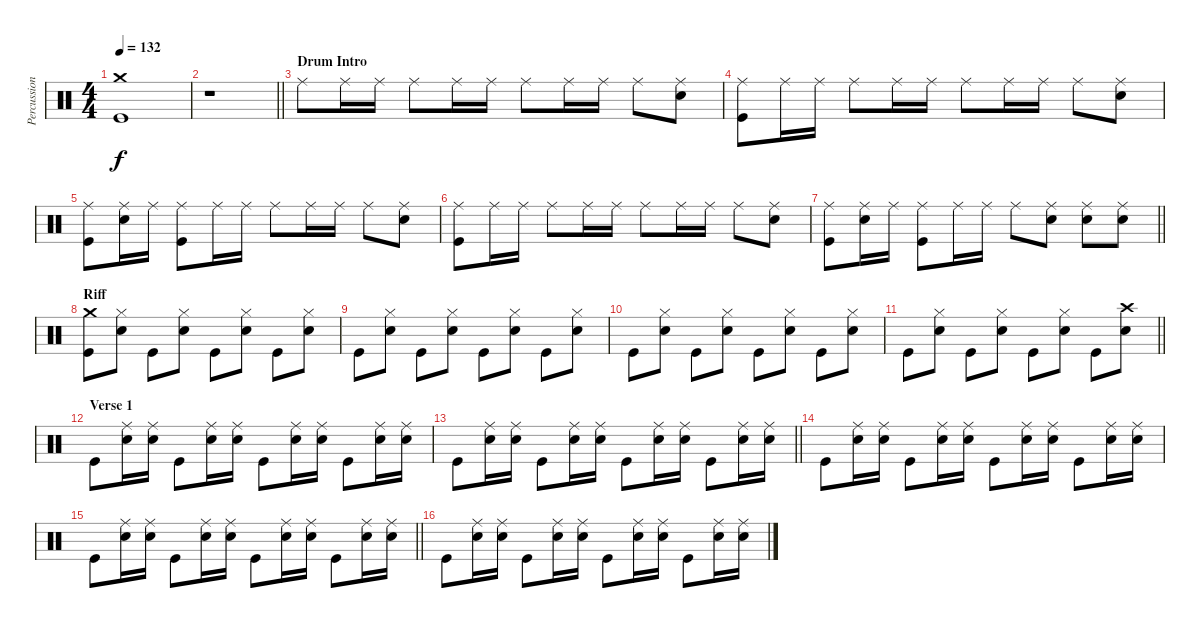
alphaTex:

\track ("Percussion" "Percussion") {instrument percussion}
\staff {score}
\articulation defaults
\ts (4 4)
\tempo 132
\clef neutral
\ks c
("Kick (hit)" "Crash medium (hit)").1{dy f} |
\barLineRight lightlight
r.1 |
\section ("" "Drum Intro")
"Ride (middle)".8 "Ride (middle)".16 "Ride (middle)".16 "Ride (middle)".8 "Ride (middle)".16 "Ride (middle)".16 "Ride (middle)".8 "Ride (middle)".16 "Ride (middle)".16 "Ride (middle)".8 ("Ride (middle)" "Snare (hit) 2").8 |
("Kick (hit)" "Ride (middle)").8 "Ride (middle)".16 "Ride (middle)".16 "Ride (middle)".8 "Ride (middle)".16 "Ride (middle)".16 "Ride (middle)".8 "Ride (middle)".16 "Ride (middle)".16 "Ride (middle)".8 ("Ride (middle)" "Snare (hit) 2").8 |
("Kick (hit)" "Ride (middle)").8 ("Ride (middle)" "Snare (hit) 2").16 "Ride (middle)".16 ("Kick (hit)" "Ride (middle)").8 "Ride (middle)".16 "Ride (middle)".16 "Ride (middle)".8 "Ride (middle)".16 "Ride (middle)".16 "Ride (middle)".8 ("Ride (middle)" "Snare (hit) 2").8 |
("Kick (hit)" "Ride (middle)").8 "Ride (middle)".16 "Ride (middle)".16 "Ride (middle)".8 "Ride (middle)".16 "Ride (middle)".16 "Ride (middle)".8 "Ride (middle)".16 "Ride (middle)".16 "Ride (middle)".8 ("Ride (middle)" "Snare (hit) 2").8 |
\barLineRight lightlight
("Kick (hit)" "Ride (middle)").8 ("Ride (middle)" "Snare (hit) 2").16 "Ride (middle)".16 ("Kick (hit)" "Ride (middle)").8 "Ride (middle)".16 "Ride (middle)".16 "Ride (middle)".8 ("Ride (middle)" "Snare (hit) 2").8 ("Ride (middle)" "Snare (hit) 2").8 ("Ride (middle)" "Snare (hit) 2").8 |
\section ("" "Riff")
("Kick (hit)" "Crash medium (hit)").8 ("Hi-Hat (closed)" "Snare (hit) 2").8 "Kick (hit)".8 ("Hi-Hat (closed)" "Snare (hit) 2").8 "Kick (hit)".8 ("Hi-Hat (closed)" "Snare (hit) 2").8 "Kick (hit)".8 ("Hi-Hat (closed)" "Snare (hit) 2").8 |
"Kick (hit)".8 ("Hi-Hat (closed)" "Snare (hit) 2").8 "Kick (hit)".8 ("Hi-Hat (closed)" "Snare (hit) 2").8 "Kick (hit)".8 ("Hi-Hat (closed)" "Snare (hit) 2").8 "Kick (hit)".8 ("Hi-Hat (closed)" "Snare (hit) 2").8 |
"Kick (hit)".8 ("Hi-Hat (closed)" "Snare (hit) 2").8 "Kick (hit)".8 ("Hi-Hat (closed)" "Snare (hit) 2").8 "Kick (hit)".8 ("Hi-Hat (closed)" "Snare (hit) 2").8 "Kick (hit)".8 ("Hi-Hat (closed)" "Snare (hit) 2").8 |
\barLineRight lightlight "Kick (hit)".8
("Hi-Hat (closed)" "Snare (hit) 2").8 "Kick (hit)".8 ("Hi-Hat (closed)" "Snare (hit) 2").8 "Kick (hit)".8 ("Hi-Hat (closed)" "Snare (hit) 2").8 "Kick (hit)".8 ("Crash high (hit)" "Snare (hit) 2").8 |
\section ("" "Verse 1")
"Kick (hit)".8 ("Ride (middle)" "Snare (hit) 2").16 ("Ride (middle)" "Snare (hit) 2").16 "Kick (hit)".8 ("Ride (middle)" "Snare (hit) 2").16 ("Ride (middle)" "Snare (hit) 2").16 "Kick (hit)".8 ("Ride (middle)" "Snare (hit) 2").16 ("Ride (middle)" "Snare (hit) 2").16 "Kick (hit)".8 ("Ride (middle)" "Snare (hit) 2").16 ("Ride (middle)" "Snare (hit) 2").16 |
\barLineRight lightlight "Kick (hit)".8
("Ride (middle)" "Snare (hit) 2").16 ("Ride (middle)" "Snare (hit) 2").16 "Kick (hit)".8 ("Ride (middle)" "Snare (hit) 2").16 ("Ride (middle)" "Snare (hit) 2").16 "Kick (hit)".8 ("Ride (middle)" "Snare (hit) 2").16 ("Ride (middle)" "Snare (hit) 2").16 "Kick (hit)".8 ("Ride (middle)" "Snare (hit) 2").16 ("Ride (middle)" "Snare (hit) 2").16 |
"Kick (hit)".8 ("Ride (middle)" "Snare (hit) 2").16 ("Ride (middle)" "Snare (hit) 2").16 "Kick (hit)".8 ("Ride (middle)" "Snare (hit) 2").16 ("Ride (middle)" "Snare (hit) 2").16 "Kick (hit)".8 ("Ride (middle)" "Snare (hit) 2").16 ("Ride (middle)" "Snare (hit) 2").16 "Kick (hit)".8 ("Ride (middle)" "Snare (hit) 2").16 ("Ride (middle)" "Snare (hit) 2").16 |
\barLineRight lightlight "Kick (hit)".8
("Ride (middle)" "Snare (hit) 2").16 ("Ride (middle)" "Snare (hit) 2").16 "Kick (hit)".8 ("Ride (middle)" "Snare (hit) 2").16 ("Ride (middle)" "Snare (hit) 2").16 "Kick (hit)".8 ("Ride (middle)" "Snare (hit) 2").16 ("Ride (middle)" "Snare (hit) 2").16 "Kick (hit)".8 ("Ride (middle)" "Snare (hit) 2").16 ("Ride (middle)" "Snare (hit) 2").16 |
"Kick (hit)".8 ("Ride (middle)" "Snare (hit) 2").16 ("Ride (middle)" "Snare (hit) 2").16 "Kick (hit)".8 ("Ride (middle)" "Snare (hit) 2").16 ("Ride (middle)" "Snare (hit) 2").16 "Kick (hit)".8 ("Ride (middle)" "Snare (hit) 2").16 ("Ride (middle)" "Snare (hit) 2").16 "Kick (hit)".8 ("Ride (middle)" "Snare (hit) 2").16 ("Ride (middle)" "Snare (hit) 2").16
